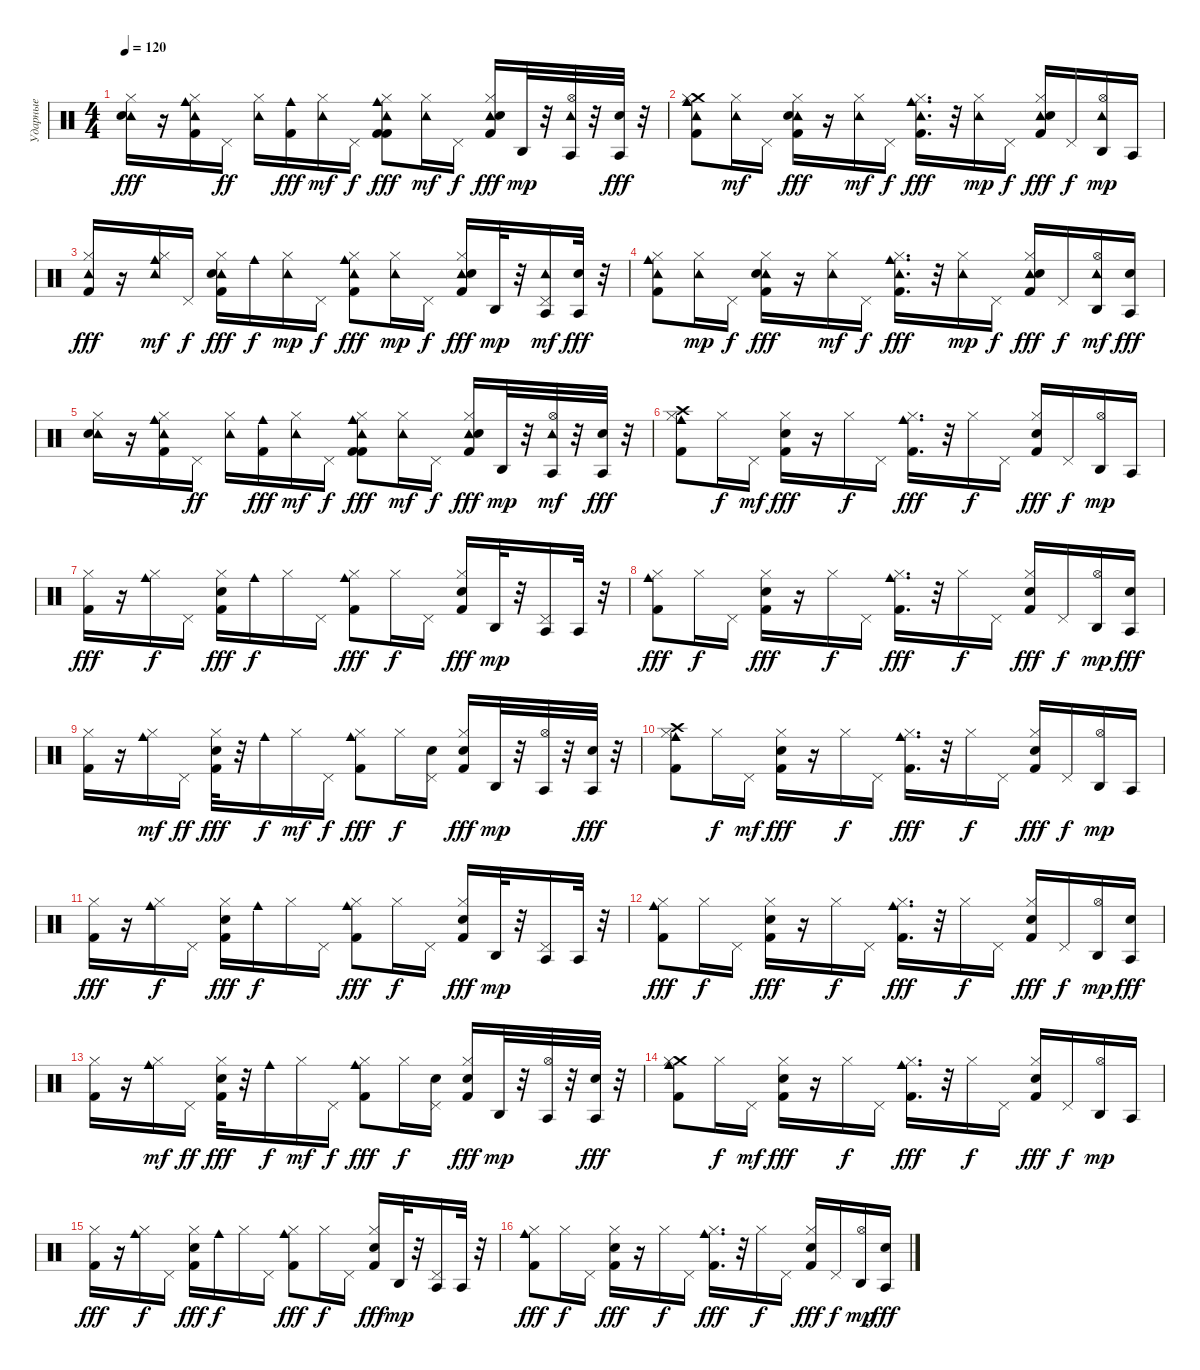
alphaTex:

\track ("Ударные" "Ударные") {instrument percussion}
\staff {score}
\articulation defaults
\ts (4 4)
\tempo 120
\clef neutral
\ks c
("Tambourine (hit)" "Electric Snare (hit)" "Hi-Hat (closed)").16{dy fff} r.16 ("Tambourine (hit)" "Cowbell medium (hit)" "Hi-Hat (closed)" "Kick (hit) 2").16 "Pedal Hi-Hat (hit)".16{dy ff} ("Tambourine (hit)" "Hi-Hat (closed)").16 ("Cowbell medium (hit)" "Kick (hit) 2").16{dy fff} ("Tambourine (hit)" "Hi-Hat (closed)").16{dy mf} "Pedal Hi-Hat (hit)".16{dy f} ("Tambourine (hit)" "Cowbell medium (hit)" "Kick (hit) 2" "Hi-Hat (closed)" "Kick (hit) 2").8{dy fff} ("Tambourine (hit)" "Hi-Hat (closed)").16{dy mf} "Pedal Hi-Hat (hit)".16{dy f} ("Tambourine (hit)" "Hi-Hat (closed)" "Kick (hit) 2" "Electric Snare (hit)").16{dy fff} "Agogo high (hit)".32{dy mp} r.32 ("Agogo tow (hit)" "Tambourine (hit)" "Hi-Hat (open)").32 r.32 ("Agogo tow (hit)" "Electric Snare (hit)").32{dy fff} r.32 |
("Tambourine (hit)" "Cowbell medium (hit)" "Crash medium (hit)" "Hi-Hat (closed)" "Kick (hit) 2").8 ("Tambourine (hit)" "Hi-Hat (closed)").16{dy mf} "Pedal Hi-Hat (hit)".16 ("Tambourine (hit)" "Electric Snare (hit)" "Kick (hit) 2" "Hi-Hat (closed)").16{dy fff} r.16 ("Tambourine (hit)" "Hi-Hat (closed)").16{dy mf} "Pedal Hi-Hat (hit)".16{dy f} ("Tambourine (hit)" "Cowbell medium (hit)" "Kick (hit) 2" "Hi-Hat (closed)").16{d dy fff} r.32 ("Tambourine (hit)" "Hi-Hat (closed)").16{dy mp} "Pedal Hi-Hat (hit)".16{dy f} ("Tambourine (hit)" "Kick (hit) 2" "Electric Snare (hit)" "Hi-Hat (closed)").16{dy fff} "Pedal Hi-Hat (hit)".16{dy f} ("Agogo high (hit)" "Tambourine (hit)" "Hi-Hat (open)").16{dy mp} "Agogo tow (hit)".16 |
("Tambourine (hit)" "Kick (hit) 2" "Hi-Hat (closed)").16{dy fff} r.16 ("Cowbell medium (hit)" "Tambourine (hit)" "Hi-Hat (closed)").16{dy mf} "Pedal Hi-Hat (hit)".16{dy f} ("Tambourine (hit)" "Hi-Hat (closed)" "Kick (hit) 2" "Electric Snare (hit)").16{dy fff} "Cowbell medium (hit)".16{dy f} ("Tambourine (hit)" "Hi-Hat (closed)").16{dy mp} "Pedal Hi-Hat (hit)".16{dy f} ("Cowbell medium (hit)" "Tambourine (hit)" "Kick (hit) 2" "Hi-Hat (closed)").8{dy fff} ("Tambourine (hit)" "Hi-Hat (closed)").16{dy mp} "Pedal Hi-Hat (hit)".16{dy f} ("Tambourine (hit)" "Electric Snare (hit)" "Kick (hit) 2" "Hi-Hat (closed)").16{dy fff} "Agogo high (hit)".32{dy mp} r.32 ("Agogo tow (hit)" "Tambourine (hit)" "Pedal Hi-Hat (hit)").16{dy mf} ("Agogo tow (hit)" "Electric Snare (hit)").32{dy fff} r.32 |
("Tambourine (hit)" "Cowbell medium (hit)" "Kick (hit) 2" "Hi-Hat (closed)").8 ("Tambourine (hit)" "Hi-Hat (closed)").16{dy mp} "Pedal Hi-Hat (hit)".16{dy f} ("Tambourine (hit)" "Electric Snare (hit)" "Kick (hit) 2" "Hi-Hat (closed)").16{dy fff} r.16 ("Tambourine (hit)" "Hi-Hat (closed)").16{dy mf} "Pedal Hi-Hat (hit)".16{dy f} ("Tambourine (hit)" "Cowbell medium (hit)" "Hi-Hat (closed)" "Kick (hit) 2").16{d dy fff} r.32 ("Tambourine (hit)" "Hi-Hat (closed)").16{dy mp} "Pedal Hi-Hat (hit)".16{dy f} ("Tambourine (hit)" "Kick (hit) 2" "Electric Snare (hit)" "Hi-Hat (closed)").16{dy fff} "Pedal Hi-Hat (hit)".16{dy f} ("Agogo high (hit)" "Tambourine (hit)" "Hi-Hat (open)").16{dy mf} ("Agogo tow (hit)" "Electric Snare (hit)").16{dy fff} |
("Tambourine (hit)" "Electric Snare (hit)" "Hi-Hat (closed)").16 r.16 ("Tambourine (hit)" "Cowbell medium (hit)" "Hi-Hat (closed)" "Kick (hit) 2").16 "Pedal Hi-Hat (hit)".16{dy ff} ("Tambourine (hit)" "Hi-Hat (closed)").16 ("Cowbell medium (hit)" "Kick (hit) 2").16{dy fff} ("Tambourine (hit)" "Hi-Hat (closed)").16{dy mf} "Pedal Hi-Hat (hit)".16{dy f} ("Tambourine (hit)" "Cowbell medium (hit)" "Kick (hit) 2" "Hi-Hat (closed)" "Kick (hit) 2").8{dy fff} ("Tambourine (hit)" "Hi-Hat (closed)").16{dy mf} "Pedal Hi-Hat (hit)".16{dy f} ("Tambourine (hit)" "Hi-Hat (closed)" "Kick (hit) 2" "Electric Snare (hit)").16{dy fff} "Agogo high (hit)".32{dy mp} r.32 ("Agogo tow (hit)" "Tambourine (hit)" "Hi-Hat (open)").32{dy mf} r.32 ("Agogo tow (hit)" "Electric Snare (hit)").32{dy fff} r.32 |
("Cowbell medium (hit)" "Crash high (hit)" "Hi-Hat (closed)" "Kick (hit) 2").8 "Hi-Hat (closed)".16{dy f} "Pedal Hi-Hat (hit)".16{dy mf} ("Electric Snare (hit)" "Kick (hit) 2" "Hi-Hat (closed)").16{dy fff} r.16 "Hi-Hat (closed)".16{dy f} "Pedal Hi-Hat (hit)".16 ("Cowbell medium (hit)" "Kick (hit) 2" "Hi-Hat (closed)").16{d dy fff} r.32 "Hi-Hat (closed)".16{dy f} "Pedal Hi-Hat (hit)".16 ("Kick (hit) 2" "Electric Snare (hit)" "Hi-Hat (closed)").16{dy fff} "Pedal Hi-Hat (hit)".16{dy f} ("Agogo high (hit)" "Hi-Hat (open)").16{dy mp} "Agogo tow (hit)".16 |
("Kick (hit) 2" "Hi-Hat (closed)").16{dy fff} r.16 ("Cowbell medium (hit)" "Hi-Hat (closed)").16{dy f} "Pedal Hi-Hat (hit)".16 ("Hi-Hat (closed)" "Kick (hit) 2" "Electric Snare (hit)").16{dy fff} "Cowbell medium (hit)".16{dy f} "Hi-Hat (closed)".16 "Pedal Hi-Hat (hit)".16 ("Cowbell medium (hit)" "Kick (hit) 2" "Hi-Hat (closed)").8{dy fff} "Hi-Hat (closed)".16{dy f} "Pedal Hi-Hat (hit)".16 ("Electric Snare (hit)" "Kick (hit) 2" "Hi-Hat (closed)").16{dy fff} "Agogo high (hit)".32{dy mp} r.32 ("Agogo tow (hit)" "Pedal Hi-Hat (hit)").16 "Agogo tow (hit)".32 r.32 |
("Cowbell medium (hit)" "Kick (hit) 2" "Hi-Hat (closed)").8{dy fff} "Hi-Hat (closed)".16{dy f} "Pedal Hi-Hat (hit)".16 ("Electric Snare (hit)" "Kick (hit) 2" "Hi-Hat (closed)").16{dy fff} r.16 "Hi-Hat (closed)".16{dy f} "Pedal Hi-Hat (hit)".16 ("Cowbell medium (hit)" "Hi-Hat (closed)" "Kick (hit) 2").16{d dy fff} r.32 "Hi-Hat (closed)".16{dy f} "Pedal Hi-Hat (hit)".16 ("Kick (hit) 2" "Electric Snare (hit)" "Hi-Hat (closed)").16{dy fff} "Pedal Hi-Hat (hit)".16{dy f} ("Agogo high (hit)" "Hi-Hat (open)").16{dy mp} ("Agogo tow (hit)" "Electric Snare (hit)").16{dy fff} |
("Kick (hit) 2" "Hi-Hat (closed)").16 r.16 ("Cowbell medium (hit)" "Hi-Hat (closed)").16{dy mf} "Pedal Hi-Hat (hit)".16{dy ff} ("Electric Snare (hit)" "Kick (hit) 2" "Hi-Hat (closed)").32{dy fff} r.32 "Cowbell medium (hit)".16{dy f} "Hi-Hat (closed)".16{dy mf} "Pedal Hi-Hat (hit)".16{dy f} ("Cowbell medium (hit)" "Hi-Hat (closed)" "Kick (hit) 2").8{dy fff} "Hi-Hat (closed)".16{dy f} ("Pedal Hi-Hat (hit)" "Electric Snare (hit)").16 ("Hi-Hat (closed)" "Kick (hit) 2" "Electric Snare (hit)").16{dy fff} "Agogo high (hit)".32{dy mp} r.32 ("Agogo tow (hit)" "Hi-Hat (open)").32 r.32 ("Agogo tow (hit)" "Electric Snare (hit)").32{dy fff} r.32 |
("Cowbell medium (hit)" "Crash high (hit)" "Hi-Hat (closed)" "Kick (hit) 2").8 "Hi-Hat (closed)".16{dy f} "Pedal Hi-Hat (hit)".16{dy mf} ("Electric Snare (hit)" "Kick (hit) 2" "Hi-Hat (closed)").16{dy fff} r.16 "Hi-Hat (closed)".16{dy f} "Pedal Hi-Hat (hit)".16 ("Cowbell medium (hit)" "Kick (hit) 2" "Hi-Hat (closed)").16{d dy fff} r.32 "Hi-Hat (closed)".16{dy f} "Pedal Hi-Hat (hit)".16 ("Kick (hit) 2" "Electric Snare (hit)" "Hi-Hat (closed)").16{dy fff} "Pedal Hi-Hat (hit)".16{dy f} ("Agogo high (hit)" "Hi-Hat (open)").16{dy mp} "Agogo tow (hit)".16 |
("Kick (hit) 2" "Hi-Hat (closed)").16{dy fff} r.16 ("Cowbell medium (hit)" "Hi-Hat (closed)").16{dy f} "Pedal Hi-Hat (hit)".16 ("Hi-Hat (closed)" "Kick (hit) 2" "Electric Snare (hit)").16{dy fff} "Cowbell medium (hit)".16{dy f} "Hi-Hat (closed)".16 "Pedal Hi-Hat (hit)".16 ("Cowbell medium (hit)" "Kick (hit) 2" "Hi-Hat (closed)").8{dy fff} "Hi-Hat (closed)".16{dy f} "Pedal Hi-Hat (hit)".16 ("Electric Snare (hit)" "Kick (hit) 2" "Hi-Hat (closed)").16{dy fff} "Agogo high (hit)".32{dy mp} r.32 ("Agogo tow (hit)" "Pedal Hi-Hat (hit)").16 "Agogo tow (hit)".32 r.32 |
("Cowbell medium (hit)" "Kick (hit) 2" "Hi-Hat (closed)").8{dy fff} "Hi-Hat (closed)".16{dy f} "Pedal Hi-Hat (hit)".16 ("Electric Snare (hit)" "Kick (hit) 2" "Hi-Hat (closed)").16{dy fff} r.16 "Hi-Hat (closed)".16{dy f} "Pedal Hi-Hat (hit)".16 ("Cowbell medium (hit)" "Hi-Hat (closed)" "Kick (hit) 2").16{d dy fff} r.32 "Hi-Hat (closed)".16{dy f} "Pedal Hi-Hat (hit)".16 ("Kick (hit) 2" "Electric Snare (hit)" "Hi-Hat (closed)").16{dy fff} "Pedal Hi-Hat (hit)".16{dy f} ("Agogo high (hit)" "Hi-Hat (open)").16{dy mp} ("Agogo tow (hit)" "Electric Snare (hit)").16{dy fff} |
("Kick (hit) 2" "Hi-Hat (closed)").16 r.16 ("Cowbell medium (hit)" "Hi-Hat (closed)").16{dy mf} "Pedal Hi-Hat (hit)".16{dy ff} ("Electric Snare (hit)" "Kick (hit) 2" "Hi-Hat (closed)").32{dy fff} r.32 "Cowbell medium (hit)".16{dy f} "Hi-Hat (closed)".16{dy mf} "Pedal Hi-Hat (hit)".16{dy f} ("Cowbell medium (hit)" "Hi-Hat (closed)" "Kick (hit) 2").8{dy fff} "Hi-Hat (closed)".16{dy f} ("Pedal Hi-Hat (hit)" "Electric Snare (hit)").16 ("Hi-Hat (closed)" "Kick (hit) 2" "Electric Snare (hit)").16{dy fff} "Agogo high (hit)".32{dy mp} r.32 ("Agogo tow (hit)" "Hi-Hat (open)").32 r.32 ("Agogo tow (hit)" "Electric Snare (hit)").32{dy fff} r.32 |
("Cowbell medium (hit)" "Crash medium (hit)" "Hi-Hat (closed)" "Kick (hit) 2").8 "Hi-Hat (closed)".16{dy f} "Pedal Hi-Hat (hit)".16{dy mf} ("Electric Snare (hit)" "Kick (hit) 2" "Hi-Hat (closed)").16{dy fff} r.16 "Hi-Hat (closed)".16{dy f} "Pedal Hi-Hat (hit)".16 ("Cowbell medium (hit)" "Kick (hit) 2" "Hi-Hat (closed)").16{d dy fff} r.32 "Hi-Hat (closed)".16{dy f} "Pedal Hi-Hat (hit)".16 ("Kick (hit) 2" "Electric Snare (hit)" "Hi-Hat (closed)").16{dy fff} "Pedal Hi-Hat (hit)".16{dy f} ("Agogo high (hit)" "Hi-Hat (open)").16{dy mp} "Agogo tow (hit)".16 |
("Kick (hit) 2" "Hi-Hat (closed)").16{dy fff} r.16 ("Cowbell medium (hit)" "Hi-Hat (closed)").16{dy f} "Pedal Hi-Hat (hit)".16 ("Hi-Hat (closed)" "Kick (hit) 2" "Electric Snare (hit)").16{dy fff} "Cowbell medium (hit)".16{dy f} "Hi-Hat (closed)".16 "Pedal Hi-Hat (hit)".16 ("Cowbell medium (hit)" "Kick (hit) 2" "Hi-Hat (closed)").8{dy fff} "Hi-Hat (closed)".16{dy f} "Pedal Hi-Hat (hit)".16 ("Electric Snare (hit)" "Kick (hit) 2" "Hi-Hat (closed)").16{dy fff} "Agogo high (hit)".32{dy mp} r.32 ("Agogo tow (hit)" "Pedal Hi-Hat (hit)").16 "Agogo tow (hit)".32 r.32 |
("Cowbell medium (hit)" "Kick (hit) 2" "Hi-Hat (closed)").8{dy fff} "Hi-Hat (closed)".16{dy f} "Pedal Hi-Hat (hit)".16 ("Electric Snare (hit)" "Kick (hit) 2" "Hi-Hat (closed)").16{dy fff} r.16 "Hi-Hat (closed)".16{dy f} "Pedal Hi-Hat (hit)".16 ("Cowbell medium (hit)" "Hi-Hat (closed)" "Kick (hit) 2").16{d dy fff} r.32 "Hi-Hat (closed)".16{dy f} "Pedal Hi-Hat (hit)".16 ("Kick (hit) 2" "Electric Snare (hit)" "Hi-Hat (closed)").16{dy fff} "Pedal Hi-Hat (hit)".16{dy f} ("Agogo high (hit)" "Hi-Hat (open)").16{dy mp} ("Agogo tow (hit)" "Electric Snare (hit)").16{dy fff}
